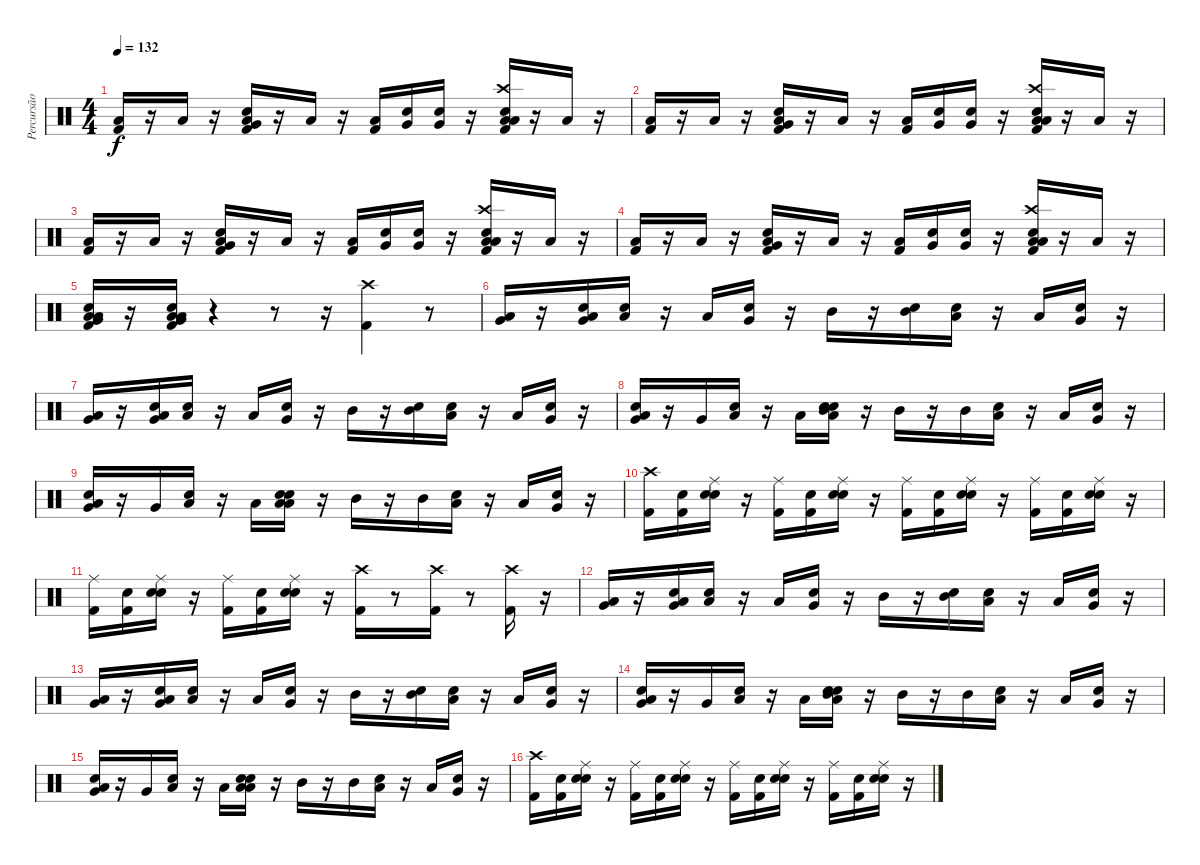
\track ("Percursão" "Percursão") {instrument percussion}
\staff {score}
\articulation defaults
\ts (4 4)
\tempo 132
\clef neutral
\ks c
("Kick (hit) 2" "Low Tom (hit)").16{dy f} r.16 "Low Tom (hit)".16 r.16 ("Kick (hit) 2" "Low Tom (hit)" "Very Low Tom (hit)" "Snare (hit) 2").16 r.16 "Low Tom (hit)".16 r.16 ("Kick (hit) 2" "Low Tom (hit)").16 ("Snare (hit)" "Very Low Tom (hit)").16 ("Snare (hit)" "Very Low Tom (hit)").16 r.16 ("Kick (hit) 2" "Snare (hit) 2" "Crash high (hit)" "Low Tom (hit)" "Low Floor Tom (hit)").16 r.16 "Low Tom (hit)".16 r.16 |
("Kick (hit) 2" "Low Tom (hit)").16 r.16 "Low Tom (hit)".16 r.16 ("Kick (hit) 2" "Low Tom (hit)" "Very Low Tom (hit)" "Snare (hit) 2").16 r.16 "Low Tom (hit)".16 r.16 ("Kick (hit) 2" "Low Tom (hit)").16 ("Snare (hit)" "Very Low Tom (hit)").16 ("Snare (hit)" "Very Low Tom (hit)").16 r.16 ("Kick (hit) 2" "Snare (hit) 2" "Crash high (hit)" "Low Tom (hit)" "Low Floor Tom (hit)").16 r.16 "Low Tom (hit)".16 r.16 |
("Kick (hit) 2" "Low Tom (hit)").16 r.16 "Low Tom (hit)".16 r.16 ("Kick (hit) 2" "Low Tom (hit)" "Very Low Tom (hit)" "Snare (hit) 2").16 r.16 "Low Tom (hit)".16 r.16 ("Kick (hit) 2" "Low Tom (hit)").16 ("Snare (hit)" "Very Low Tom (hit)").16 ("Snare (hit)" "Very Low Tom (hit)").16 r.16 ("Kick (hit) 2" "Snare (hit) 2" "Crash high (hit)" "Low Tom (hit)" "Low Floor Tom (hit)").16 r.16 "Low Tom (hit)".16 r.16 |
("Kick (hit) 2" "Low Tom (hit)").16 r.16 "Low Tom (hit)".16 r.16 ("Kick (hit) 2" "Low Tom (hit)" "Very Low Tom (hit)" "Snare (hit) 2").16 r.16 "Low Tom (hit)".16 r.16 ("Kick (hit) 2" "Low Tom (hit)").16 ("Snare (hit)" "Very Low Tom (hit)").16 ("Snare (hit)" "Very Low Tom (hit)").16 r.16 ("Kick (hit) 2" "Snare (hit) 2" "Crash high (hit)" "Low Tom (hit)" "Low Floor Tom (hit)").16 r.16 "Low Tom (hit)".16 r.16 |
("Very Low Tom (hit)" "Low Tom (hit)" "Low Floor Tom (hit)" "Kick (hit) 2" "Snare (hit) 2").16 r.16 ("Kick (hit) 2" "Very Low Tom (hit)" "Low Floor Tom (hit)" "Low Tom (hit)" "Snare (hit) 2").16 r.4 r.8 r.16 ("Crash high (hit)" "Kick (hit) 2").4 r.8 |
("Very Low Tom (hit)" "Low Floor Tom (hit)").16 r.16 ("Electric Snare (hit)" "Low Floor Tom (hit)" "Very Low Tom (hit)").16 ("Snare (hit)" "Low Floor Tom (hit)").16 r.16 "Low Floor Tom (hit)".16 ("Snare (hit)" "Very Low Tom (hit)").16 r.16 "Mid Tom (hit)".16 r.16 ("Mid Tom (hit)" "Snare (hit) 2").16 ("Snare (hit)" "Low Tom (hit)").16 r.16 "Low Tom (hit)".16 ("Snare (hit)" "Very Low Tom (hit)").16 r.16 |
("Very Low Tom (hit)" "Low Floor Tom (hit)").16 r.16 ("Electric Snare (hit)" "Low Floor Tom (hit)" "Very Low Tom (hit)").16 ("Snare (hit)" "Low Floor Tom (hit)").16 r.16 "Low Floor Tom (hit)".16 ("Snare (hit)" "Very Low Tom (hit)").16 r.16 "Mid Tom (hit)".16 r.16 ("Mid Tom (hit)" "Snare (hit) 2").16 ("Snare (hit)" "Low Tom (hit)").16 r.16 "Low Tom (hit)".16 ("Snare (hit)" "Very Low Tom (hit)").16 r.16 |
("Electric Snare (hit)" "Low Floor Tom (hit)" "Very Low Tom (hit)").16 r.16 "Very Low Tom (hit)".16 ("Snare (hit)" "Low Floor Tom (hit)").16 r.16 "Low Floor Tom (hit)".16 ("Snare (hit)" "Electric Snare (hit)" "Low Floor Tom (hit)" "Mid Tom (hit)").16 r.16 "Mid Tom (hit)".16 r.16 "Mid Tom (hit)".16 ("Snare (hit)" "Low Tom (hit)").16 r.16 "Low Tom (hit)".16 ("Snare (hit)" "Very Low Tom (hit)").16 r.16 |
("Low Floor Tom (hit)" "Electric Snare (hit)" "Very Low Tom (hit)").16 r.16 "Very Low Tom (hit)".16 ("Snare (hit)" "Low Floor Tom (hit)").16 r.16 "Low Floor Tom (hit)".16 ("Snare (hit)" "Electric Snare (hit)" "Low Floor Tom (hit)" "Low Tom (hit)").16 r.16 "Mid Tom (hit)".16 r.16 "Mid Tom (hit)".16 ("Snare (hit)" "Low Tom (hit)").16 r.16 "Low Tom (hit)".16 ("Snare (hit)" "Very Low Tom (hit)").16 r.16 |
("Crash high (hit)" "Kick (hit) 2").16 ("Snare (hit)" "Kick (hit) 2").16 ("Snare (hit)" "Ride (middle)" "Electric Snare (hit)").16 r.16 ("Ride (middle)" "Kick (hit) 2").16 ("Snare (hit)" "Kick (hit) 2").16 ("Snare (hit)" "Ride (middle)" "Electric Snare (hit)").16 r.16 ("Ride (middle)" "Kick (hit) 2").16 ("Snare (hit)" "Kick (hit) 2").16 ("Snare (hit)" "Ride (middle)" "Electric Snare (hit)").16 r.16 ("Ride (middle)" "Kick (hit) 2").16 ("Snare (hit)" "Kick (hit) 2").16 ("Snare (hit)" "Ride (middle)" "Electric Snare (hit)").16 r.16 |
("Ride (middle)" "Kick (hit) 2").16 ("Snare (hit)" "Kick (hit) 2").16 ("Snare (hit)" "Ride (middle)" "Electric Snare (hit)").16 r.16 ("Ride (middle)" "Kick (hit) 2").16 ("Snare (hit)" "Kick (hit) 2").16 ("Snare (hit)" "Ride (middle)" "Electric Snare (hit)").16 r.16 ("Crash high (hit)" "Kick (hit) 2").16 r.8 ("Crash high (hit)" "Kick (hit) 2").16 r.8 ("Crash high (hit)" "Kick (hit) 2").16 r.16 |
("Very Low Tom (hit)" "Low Floor Tom (hit)").16 r.16 ("Electric Snare (hit)" "Low Floor Tom (hit)" "Very Low Tom (hit)").16 ("Snare (hit)" "Low Floor Tom (hit)").16 r.16 "Low Floor Tom (hit)".16 ("Snare (hit)" "Very Low Tom (hit)").16 r.16 "Mid Tom (hit)".16 r.16 ("Mid Tom (hit)" "Snare (hit) 2").16 ("Snare (hit)" "Low Tom (hit)").16 r.16 "Low Tom (hit)".16 ("Snare (hit)" "Very Low Tom (hit)").16 r.16 |
("Very Low Tom (hit)" "Low Floor Tom (hit)").16 r.16 ("Electric Snare (hit)" "Low Floor Tom (hit)" "Very Low Tom (hit)").16 ("Snare (hit)" "Low Floor Tom (hit)").16 r.16 "Low Floor Tom (hit)".16 ("Snare (hit)" "Very Low Tom (hit)").16 r.16 "Mid Tom (hit)".16 r.16 ("Mid Tom (hit)" "Snare (hit) 2").16 ("Snare (hit)" "Low Tom (hit)").16 r.16 "Low Tom (hit)".16 ("Snare (hit)" "Very Low Tom (hit)").16 r.16 |
("Electric Snare (hit)" "Low Floor Tom (hit)" "Very Low Tom (hit)").16 r.16 "Very Low Tom (hit)".16 ("Snare (hit)" "Low Floor Tom (hit)").16 r.16 "Low Floor Tom (hit)".16 ("Snare (hit)" "Electric Snare (hit)" "Low Floor Tom (hit)" "Mid Tom (hit)").16 r.16 "Mid Tom (hit)".16 r.16 "Mid Tom (hit)".16 ("Snare (hit)" "Low Tom (hit)").16 r.16 "Low Tom (hit)".16 ("Snare (hit)" "Very Low Tom (hit)").16 r.16 |
("Low Floor Tom (hit)" "Electric Snare (hit)" "Very Low Tom (hit)").16 r.16 "Very Low Tom (hit)".16 ("Snare (hit)" "Low Floor Tom (hit)").16 r.16 "Low Floor Tom (hit)".16 ("Snare (hit)" "Electric Snare (hit)" "Low Floor Tom (hit)" "Low Tom (hit)").16 r.16 "Mid Tom (hit)".16 r.16 "Mid Tom (hit)".16 ("Snare (hit)" "Low Tom (hit)").16 r.16 "Low Tom (hit)".16 ("Snare (hit)" "Very Low Tom (hit)").16 r.16 |
("Crash high (hit)" "Kick (hit) 2").16 ("Snare (hit)" "Kick (hit) 2").16 ("Snare (hit)" "Ride (middle)" "Electric Snare (hit)").16 r.16 ("Ride (middle)" "Kick (hit) 2").16 ("Snare (hit)" "Kick (hit) 2").16 ("Snare (hit)" "Ride (middle)" "Electric Snare (hit)").16 r.16 ("Ride (middle)" "Kick (hit) 2").16 ("Snare (hit)" "Kick (hit) 2").16 ("Snare (hit)" "Ride (middle)" "Electric Snare (hit)").16 r.16 ("Ride (middle)" "Kick (hit) 2").16 ("Snare (hit)" "Kick (hit) 2").16 ("Snare (hit)" "Ride (middle)" "Electric Snare (hit)").16 r.16
